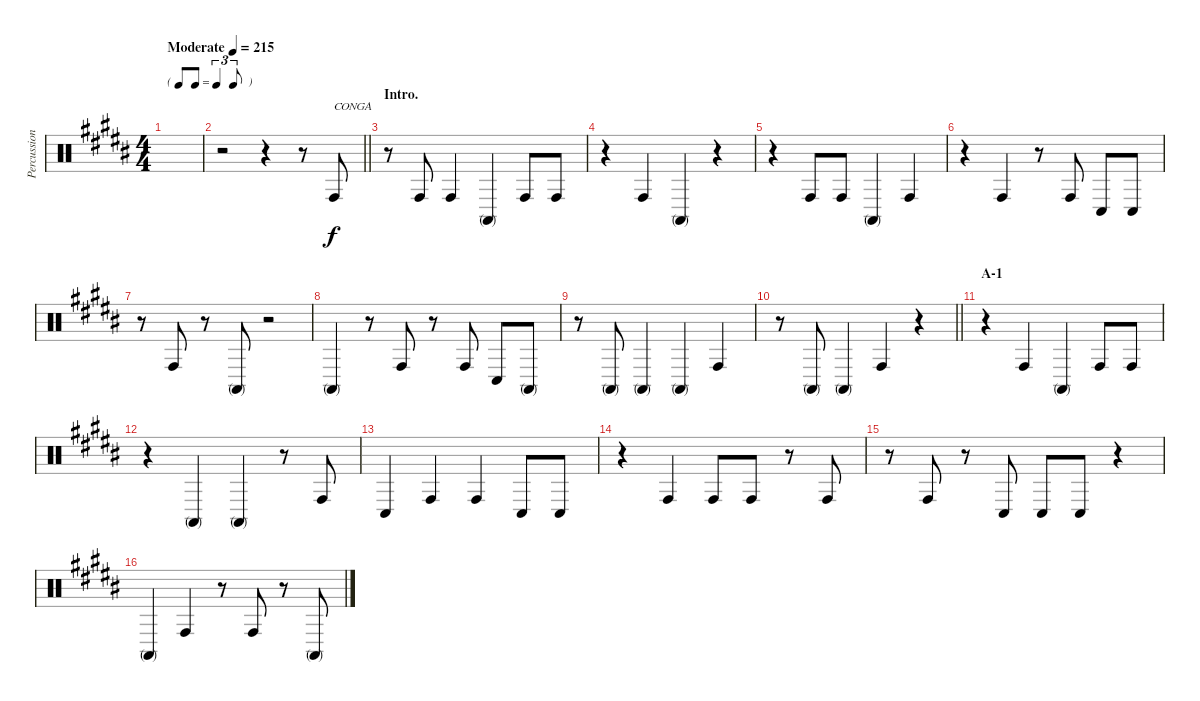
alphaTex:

\track ("Percussion A (Tainaka Ritsu)" "Percussion") {instrument percussion}
\staff {score}
\articulation defaults
\ts (4 4)
\tf triplet8th
\tempo (215 "Moderate")
\clef neutral
\ks b
|
\barLineRight lightlight
r.2 r.4 r.8 "Conga high (hit)".8{txt "CONGA"} |
\section ("" "Intro.")
r.8 "Conga high (hit)".8 "Conga high (hit)".4 "Conga high (mute)".4 "Conga high (hit)".8 "Conga high (hit)".8 |
r.4 "Conga high (hit)".4 "Conga high (mute)".4 r.4 |
r.4 "Conga high (hit)".8 "Conga high (hit)".8 "Conga high (mute)".4 "Conga high (hit)".4 |
r.4 "Conga high (hit)".4 r.8 "Conga high (hit)".8 "Conga low (hit)".8 "Conga low (hit)".8 |
r.8 "Conga high (hit)".8 r.8 "Conga high (mute)".8 r.2 |
"Conga high (mute)".4 r.8 "Conga high (hit)".8 r.8 "Conga high (hit)".8 "Conga low (hit)".8 "Conga high (mute)".8 |
r.8 "Conga high (mute)".8 "Conga high (mute)".4 "Conga high (mute)".4 "Conga high (hit)".4 |
\barLineRight lightlight
r.8 "Conga high (mute)".8 "Conga high (mute)".4 "Conga high (hit)".4 r.4 |
\section ("" "A-1")
r.4 "Conga high (hit)".4 "Conga high (mute)".4 "Conga high (hit)".8 "Conga high (hit)".8 |
r.4 "Conga high (mute)".4 "Conga high (mute)".4 r.8 "Conga high (hit)".8 |
"Conga low (hit)".4 "Conga high (hit)".4 "Conga high (hit)".4 "Conga low (hit)".8 "Conga low (hit)".8 |
r.4 "Conga high (hit)".4 "Conga high (hit)".8 "Conga high (hit)".8 r.8 "Conga high (hit)".8 |
r.8 "Conga high (hit)".8 r.8 "Conga low (hit)".8 "Conga low (hit)".8 "Conga low (hit)".8 r.4 |
"Conga high (mute)".4 "Conga high (hit)".4 r.8 "Conga high (hit)".8 r.8 "Conga high (mute)".8
